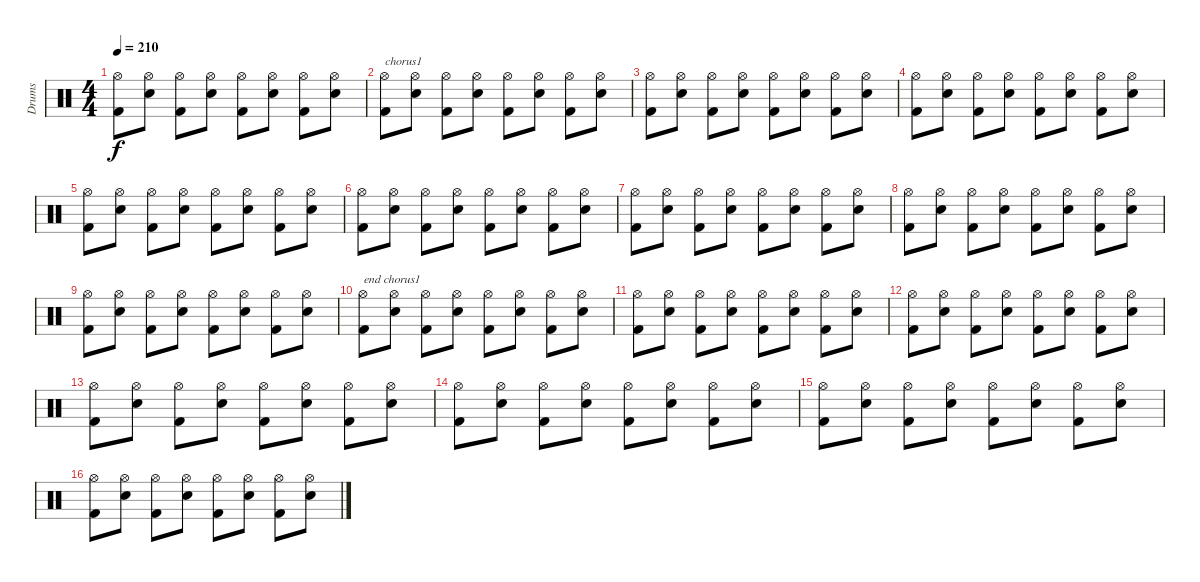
\track ("Drums" "Drums") {instrument percussion}
\staff {score}
\articulation defaults
\ts (4 4)
\tempo 210
\clef neutral
\ks c
("Kick (hit) 2" "Hi-Hat (open)").8{dy f} ("Snare (hit) 2" "Hi-Hat (open)").8 ("Kick (hit) 2" "Hi-Hat (open)").8 ("Snare (hit) 2" "Hi-Hat (open)").8 ("Kick (hit) 2" "Hi-Hat (open)").8 ("Snare (hit) 2" "Hi-Hat (open)").8 ("Kick (hit) 2" "Hi-Hat (open)").8 ("Snare (hit) 2" "Hi-Hat (open)").8 |
("Kick (hit) 2" "Hi-Hat (open)").8{txt "chorus1"} ("Snare (hit) 2" "Hi-Hat (open)").8 ("Kick (hit) 2" "Hi-Hat (open)").8 ("Snare (hit) 2" "Hi-Hat (open)").8 ("Kick (hit) 2" "Hi-Hat (open)").8 ("Snare (hit) 2" "Hi-Hat (open)").8 ("Kick (hit) 2" "Hi-Hat (open)").8 ("Snare (hit) 2" "Hi-Hat (open)").8 |
("Kick (hit) 2" "Hi-Hat (open)").8 ("Snare (hit) 2" "Hi-Hat (open)").8 ("Kick (hit) 2" "Hi-Hat (open)").8 ("Snare (hit) 2" "Hi-Hat (open)").8 ("Kick (hit) 2" "Hi-Hat (open)").8 ("Snare (hit) 2" "Hi-Hat (open)").8 ("Kick (hit) 2" "Hi-Hat (open)").8 ("Snare (hit) 2" "Hi-Hat (open)").8 |
("Kick (hit) 2" "Hi-Hat (open)").8 ("Snare (hit) 2" "Hi-Hat (open)").8 ("Kick (hit) 2" "Hi-Hat (open)").8 ("Snare (hit) 2" "Hi-Hat (open)").8 ("Kick (hit) 2" "Hi-Hat (open)").8 ("Snare (hit) 2" "Hi-Hat (open)").8 ("Kick (hit) 2" "Hi-Hat (open)").8 ("Snare (hit) 2" "Hi-Hat (open)").8 |
("Kick (hit) 2" "Hi-Hat (open)").8 ("Snare (hit) 2" "Hi-Hat (open)").8 ("Kick (hit) 2" "Hi-Hat (open)").8 ("Snare (hit) 2" "Hi-Hat (open)").8 ("Kick (hit) 2" "Hi-Hat (open)").8 ("Snare (hit) 2" "Hi-Hat (open)").8 ("Kick (hit) 2" "Hi-Hat (open)").8 ("Snare (hit) 2" "Hi-Hat (open)").8 |
("Kick (hit) 2" "Hi-Hat (open)").8 ("Snare (hit) 2" "Hi-Hat (open)").8 ("Kick (hit) 2" "Hi-Hat (open)").8 ("Snare (hit) 2" "Hi-Hat (open)").8 ("Kick (hit) 2" "Hi-Hat (open)").8 ("Snare (hit) 2" "Hi-Hat (open)").8 ("Kick (hit) 2" "Hi-Hat (open)").8 ("Snare (hit) 2" "Hi-Hat (open)").8 |
("Kick (hit) 2" "Hi-Hat (open)").8 ("Snare (hit) 2" "Hi-Hat (open)").8 ("Kick (hit) 2" "Hi-Hat (open)").8 ("Snare (hit) 2" "Hi-Hat (open)").8 ("Kick (hit) 2" "Hi-Hat (open)").8 ("Snare (hit) 2" "Hi-Hat (open)").8 ("Kick (hit) 2" "Hi-Hat (open)").8 ("Snare (hit) 2" "Hi-Hat (open)").8 |
("Kick (hit) 2" "Hi-Hat (open)").8 ("Snare (hit) 2" "Hi-Hat (open)").8 ("Kick (hit) 2" "Hi-Hat (open)").8 ("Snare (hit) 2" "Hi-Hat (open)").8 ("Kick (hit) 2" "Hi-Hat (open)").8 ("Snare (hit) 2" "Hi-Hat (open)").8 ("Kick (hit) 2" "Hi-Hat (open)").8 ("Snare (hit) 2" "Hi-Hat (open)").8 |
("Kick (hit) 2" "Hi-Hat (open)").8 ("Snare (hit) 2" "Hi-Hat (open)").8 ("Kick (hit) 2" "Hi-Hat (open)").8 ("Snare (hit) 2" "Hi-Hat (open)").8 ("Kick (hit) 2" "Hi-Hat (open)").8 ("Snare (hit) 2" "Hi-Hat (open)").8 ("Kick (hit) 2" "Hi-Hat (open)").8 ("Snare (hit) 2" "Hi-Hat (open)").8 |
("Kick (hit) 2" "Hi-Hat (open)").8{txt "end chorus1"} ("Snare (hit) 2" "Hi-Hat (open)").8 ("Kick (hit) 2" "Hi-Hat (open)").8 ("Snare (hit) 2" "Hi-Hat (open)").8 ("Kick (hit) 2" "Hi-Hat (open)").8 ("Snare (hit) 2" "Hi-Hat (open)").8 ("Kick (hit) 2" "Hi-Hat (open)").8 ("Snare (hit) 2" "Hi-Hat (open)").8 |
("Kick (hit) 2" "Hi-Hat (open)").8 ("Snare (hit) 2" "Hi-Hat (open)").8 ("Kick (hit) 2" "Hi-Hat (open)").8 ("Snare (hit) 2" "Hi-Hat (open)").8 ("Kick (hit) 2" "Hi-Hat (open)").8 ("Snare (hit) 2" "Hi-Hat (open)").8 ("Kick (hit) 2" "Hi-Hat (open)").8 ("Snare (hit) 2" "Hi-Hat (open)").8 |
("Kick (hit) 2" "Hi-Hat (open)").8 ("Snare (hit) 2" "Hi-Hat (open)").8 ("Kick (hit) 2" "Hi-Hat (open)").8 ("Snare (hit) 2" "Hi-Hat (open)").8 ("Kick (hit) 2" "Hi-Hat (open)").8 ("Snare (hit) 2" "Hi-Hat (open)").8 ("Kick (hit) 2" "Hi-Hat (open)").8 ("Snare (hit) 2" "Hi-Hat (open)").8 |
("Kick (hit) 2" "Hi-Hat (open)").8 ("Snare (hit) 2" "Hi-Hat (open)").8 ("Kick (hit) 2" "Hi-Hat (open)").8 ("Snare (hit) 2" "Hi-Hat (open)").8 ("Kick (hit) 2" "Hi-Hat (open)").8 ("Snare (hit) 2" "Hi-Hat (open)").8 ("Kick (hit) 2" "Hi-Hat (open)").8 ("Snare (hit) 2" "Hi-Hat (open)").8 |
("Kick (hit) 2" "Hi-Hat (open)").8 ("Snare (hit) 2" "Hi-Hat (open)").8 ("Kick (hit) 2" "Hi-Hat (open)").8 ("Snare (hit) 2" "Hi-Hat (open)").8 ("Kick (hit) 2" "Hi-Hat (open)").8 ("Snare (hit) 2" "Hi-Hat (open)").8 ("Kick (hit) 2" "Hi-Hat (open)").8 ("Snare (hit) 2" "Hi-Hat (open)").8 |
("Kick (hit) 2" "Hi-Hat (open)").8 ("Snare (hit) 2" "Hi-Hat (open)").8 ("Kick (hit) 2" "Hi-Hat (open)").8 ("Snare (hit) 2" "Hi-Hat (open)").8 ("Kick (hit) 2" "Hi-Hat (open)").8 ("Snare (hit) 2" "Hi-Hat (open)").8 ("Kick (hit) 2" "Hi-Hat (open)").8 ("Snare (hit) 2" "Hi-Hat (open)").8 |
("Kick (hit) 2" "Hi-Hat (open)").8 ("Snare (hit) 2" "Hi-Hat (open)").8 ("Kick (hit) 2" "Hi-Hat (open)").8 ("Snare (hit) 2" "Hi-Hat (open)").8 ("Kick (hit) 2" "Hi-Hat (open)").8 ("Snare (hit) 2" "Hi-Hat (open)").8 ("Kick (hit) 2" "Hi-Hat (open)").8 ("Snare (hit) 2" "Hi-Hat (open)").8
